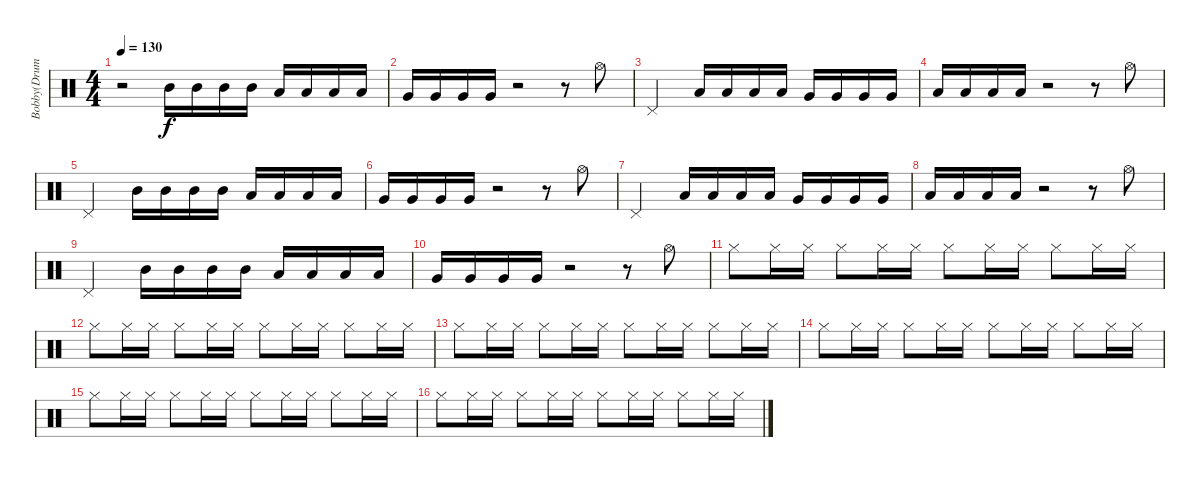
\track ("Bobby(DrumSynth)" "Bobby(Drum") {instrument percussion}
\staff {score}
\articulation defaults
\ts (4 4)
\tempo 130
\clef neutral
\ks c
r.2{dy f} "Mid Tom (hit)".16 "Mid Tom (hit)".16 "Mid Tom (hit)".16 "Mid Tom (hit)".16 "Low Tom (hit)".16 "Low Tom (hit)".16 "Low Tom (hit)".16 "Low Tom (hit)".16 |
"Very Low Tom (hit)".16 "Very Low Tom (hit)".16 "Very Low Tom (hit)".16 "Very Low Tom (hit)".16 r.2 r.8 "Hi-Hat (open)".8 |
"Pedal Hi-Hat (hit)".2 "Low Tom (hit)".16 "Low Tom (hit)".16 "Low Tom (hit)".16 "Low Tom (hit)".16 "Very Low Tom (hit)".16 "Very Low Tom (hit)".16 "Very Low Tom (hit)".16 "Very Low Tom (hit)".16 |
"Low Floor Tom (hit)".16 "Low Floor Tom (hit)".16 "Low Floor Tom (hit)".16 "Low Floor Tom (hit)".16 r.2 r.8 "Hi-Hat (open)".8 |
"Pedal Hi-Hat (hit)".2 "Mid Tom (hit)".16 "Mid Tom (hit)".16 "Mid Tom (hit)".16 "Mid Tom (hit)".16 "Low Tom (hit)".16 "Low Tom (hit)".16 "Low Tom (hit)".16 "Low Tom (hit)".16 |
"Very Low Tom (hit)".16 "Very Low Tom (hit)".16 "Very Low Tom (hit)".16 "Very Low Tom (hit)".16 r.2 r.8 "Hi-Hat (open)".8 |
"Pedal Hi-Hat (hit)".2 "Low Tom (hit)".16 "Low Tom (hit)".16 "Low Tom (hit)".16 "Low Tom (hit)".16 "Very Low Tom (hit)".16 "Very Low Tom (hit)".16 "Very Low Tom (hit)".16 "Very Low Tom (hit)".16 |
"Low Floor Tom (hit)".16 "Low Floor Tom (hit)".16 "Low Floor Tom (hit)".16 "Low Floor Tom (hit)".16 r.2 r.8 "Hi-Hat (open)".8 |
"Pedal Hi-Hat (hit)".2 "Mid Tom (hit)".16 "Mid Tom (hit)".16 "Mid Tom (hit)".16 "Mid Tom (hit)".16 "Low Tom (hit)".16 "Low Tom (hit)".16 "Low Tom (hit)".16 "Low Tom (hit)".16 |
"Very Low Tom (hit)".16 "Very Low Tom (hit)".16 "Very Low Tom (hit)".16 "Very Low Tom (hit)".16 r.2 r.8 "Hi-Hat (open)".8 |
"Hi-Hat (closed)".8 "Hi-Hat (closed)".16 "Hi-Hat (closed)".16 "Hi-Hat (closed)".8 "Hi-Hat (closed)".16 "Hi-Hat (closed)".16 "Hi-Hat (closed)".8 "Hi-Hat (closed)".16 "Hi-Hat (closed)".16 "Hi-Hat (closed)".8 "Hi-Hat (closed)".16 "Hi-Hat (closed)".16 |
"Hi-Hat (closed)".8 "Hi-Hat (closed)".16 "Hi-Hat (closed)".16 "Hi-Hat (closed)".8 "Hi-Hat (closed)".16 "Hi-Hat (closed)".16 "Hi-Hat (closed)".8 "Hi-Hat (closed)".16 "Hi-Hat (closed)".16 "Hi-Hat (closed)".8 "Hi-Hat (closed)".16 "Hi-Hat (closed)".16 |
"Hi-Hat (closed)".8 "Hi-Hat (closed)".16 "Hi-Hat (closed)".16 "Hi-Hat (closed)".8 "Hi-Hat (closed)".16 "Hi-Hat (closed)".16 "Hi-Hat (closed)".8 "Hi-Hat (closed)".16 "Hi-Hat (closed)".16 "Hi-Hat (closed)".8 "Hi-Hat (closed)".16 "Hi-Hat (closed)".16 |
"Hi-Hat (closed)".8 "Hi-Hat (closed)".16 "Hi-Hat (closed)".16 "Hi-Hat (closed)".8 "Hi-Hat (closed)".16 "Hi-Hat (closed)".16 "Hi-Hat (closed)".8 "Hi-Hat (closed)".16 "Hi-Hat (closed)".16 "Hi-Hat (closed)".8 "Hi-Hat (closed)".16 "Hi-Hat (closed)".16 |
"Hi-Hat (closed)".8 "Hi-Hat (closed)".16 "Hi-Hat (closed)".16 "Hi-Hat (closed)".8 "Hi-Hat (closed)".16 "Hi-Hat (closed)".16 "Hi-Hat (closed)".8 "Hi-Hat (closed)".16 "Hi-Hat (closed)".16 "Hi-Hat (closed)".8 "Hi-Hat (closed)".16 "Hi-Hat (closed)".16 |
"Hi-Hat (closed)".8 "Hi-Hat (closed)".16 "Hi-Hat (closed)".16 "Hi-Hat (closed)".8 "Hi-Hat (closed)".16 "Hi-Hat (closed)".16 "Hi-Hat (closed)".8 "Hi-Hat (closed)".16 "Hi-Hat (closed)".16 "Hi-Hat (closed)".8 "Hi-Hat (closed)".16 "Hi-Hat (closed)".16
